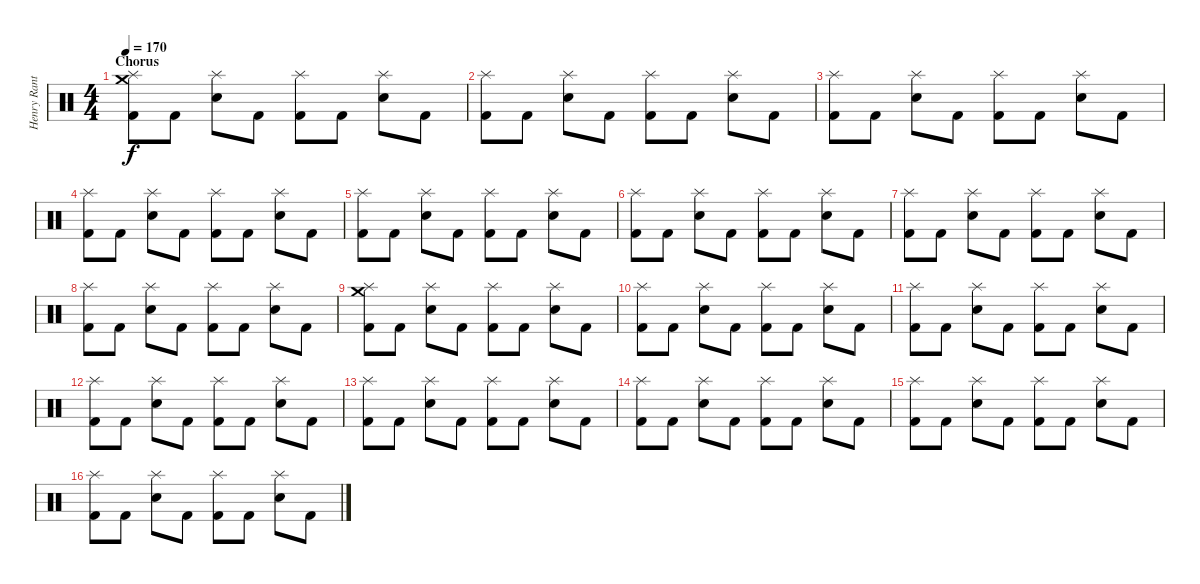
\track ("Henry Ranta -Drums-" "Henry Rant") {instrument percussion}
\staff {score}
\articulation defaults
\ts (4 4)
\section ("" "Chorus")
\tempo 170
\clef neutral
\ks c
("Splash (hit)" "Crash medium (hit)" "Kick (hit) 2").8{dy f} "Kick (hit) 2".8 ("Splash (hit)" "Snare (hit) 2").8 "Kick (hit) 2".8 ("Splash (hit)" "Kick (hit) 2").8 "Kick (hit) 2".8 ("Splash (hit)" "Snare (hit) 2").8 "Kick (hit) 2".8 |
("Splash (hit)" "Kick (hit) 2").8 "Kick (hit) 2".8 ("Splash (hit)" "Snare (hit) 2").8 "Kick (hit) 2".8 ("Splash (hit)" "Kick (hit) 2").8 "Kick (hit) 2".8 ("Splash (hit)" "Snare (hit) 2").8 "Kick (hit) 2".8 |
("Splash (hit)" "Kick (hit) 2").8 "Kick (hit) 2".8 ("Splash (hit)" "Snare (hit) 2").8 "Kick (hit) 2".8 ("Splash (hit)" "Kick (hit) 2").8 "Kick (hit) 2".8 ("Splash (hit)" "Snare (hit) 2").8 "Kick (hit) 2".8 |
("Splash (hit)" "Kick (hit) 2").8 "Kick (hit) 2".8 ("Splash (hit)" "Snare (hit) 2").8 "Kick (hit) 2".8 ("Splash (hit)" "Kick (hit) 2").8 "Kick (hit) 2".8 ("Splash (hit)" "Snare (hit) 2").8 "Kick (hit) 2".8 |
("Splash (hit)" "Kick (hit) 2").8 "Kick (hit) 2".8 ("Splash (hit)" "Snare (hit) 2").8 "Kick (hit) 2".8 ("Splash (hit)" "Kick (hit) 2").8 "Kick (hit) 2".8 ("Splash (hit)" "Snare (hit) 2").8 "Kick (hit) 2".8 |
("Splash (hit)" "Kick (hit) 2").8 "Kick (hit) 2".8 ("Splash (hit)" "Snare (hit) 2").8 "Kick (hit) 2".8 ("Splash (hit)" "Kick (hit) 2").8 "Kick (hit) 2".8 ("Splash (hit)" "Snare (hit) 2").8 "Kick (hit) 2".8 |
("Splash (hit)" "Kick (hit) 2").8 "Kick (hit) 2".8 ("Splash (hit)" "Snare (hit) 2").8 "Kick (hit) 2".8 ("Splash (hit)" "Kick (hit) 2").8 "Kick (hit) 2".8 ("Splash (hit)" "Snare (hit) 2").8 "Kick (hit) 2".8 |
("Splash (hit)" "Kick (hit) 2").8 "Kick (hit) 2".8 ("Splash (hit)" "Snare (hit) 2").8 "Kick (hit) 2".8 ("Splash (hit)" "Kick (hit) 2").8 "Kick (hit) 2".8 ("Splash (hit)" "Snare (hit) 2").8 "Kick (hit) 2".8 |
("Splash (hit)" "Crash medium (hit)" "Kick (hit) 2").8 "Kick (hit) 2".8 ("Splash (hit)" "Snare (hit) 2").8 "Kick (hit) 2".8 ("Splash (hit)" "Kick (hit) 2").8 "Kick (hit) 2".8 ("Splash (hit)" "Snare (hit) 2").8 "Kick (hit) 2".8 |
("Splash (hit)" "Kick (hit) 2").8 "Kick (hit) 2".8 ("Splash (hit)" "Snare (hit) 2").8 "Kick (hit) 2".8 ("Splash (hit)" "Kick (hit) 2").8 "Kick (hit) 2".8 ("Splash (hit)" "Snare (hit) 2").8 "Kick (hit) 2".8 |
("Splash (hit)" "Kick (hit) 2").8 "Kick (hit) 2".8 ("Splash (hit)" "Snare (hit) 2").8 "Kick (hit) 2".8 ("Splash (hit)" "Kick (hit) 2").8 "Kick (hit) 2".8 ("Splash (hit)" "Snare (hit) 2").8 "Kick (hit) 2".8 |
("Splash (hit)" "Kick (hit) 2").8 "Kick (hit) 2".8 ("Splash (hit)" "Snare (hit) 2").8 "Kick (hit) 2".8 ("Splash (hit)" "Kick (hit) 2").8 "Kick (hit) 2".8 ("Splash (hit)" "Snare (hit) 2").8 "Kick (hit) 2".8 |
("Splash (hit)" "Kick (hit) 2").8 "Kick (hit) 2".8 ("Splash (hit)" "Snare (hit) 2").8 "Kick (hit) 2".8 ("Splash (hit)" "Kick (hit) 2").8 "Kick (hit) 2".8 ("Splash (hit)" "Snare (hit) 2").8 "Kick (hit) 2".8 |
("Splash (hit)" "Kick (hit) 2").8 "Kick (hit) 2".8 ("Splash (hit)" "Snare (hit) 2").8 "Kick (hit) 2".8 ("Splash (hit)" "Kick (hit) 2").8 "Kick (hit) 2".8 ("Splash (hit)" "Snare (hit) 2").8 "Kick (hit) 2".8 |
("Splash (hit)" "Kick (hit) 2").8 "Kick (hit) 2".8 ("Splash (hit)" "Snare (hit) 2").8 "Kick (hit) 2".8 ("Splash (hit)" "Kick (hit) 2").8 "Kick (hit) 2".8 ("Splash (hit)" "Snare (hit) 2").8 "Kick (hit) 2".8 |
("Splash (hit)" "Kick (hit) 2").8 "Kick (hit) 2".8 ("Splash (hit)" "Snare (hit) 2").8 "Kick (hit) 2".8 ("Splash (hit)" "Kick (hit) 2").8 "Kick (hit) 2".8 ("Splash (hit)" "Snare (hit) 2").8 "Kick (hit) 2".8
